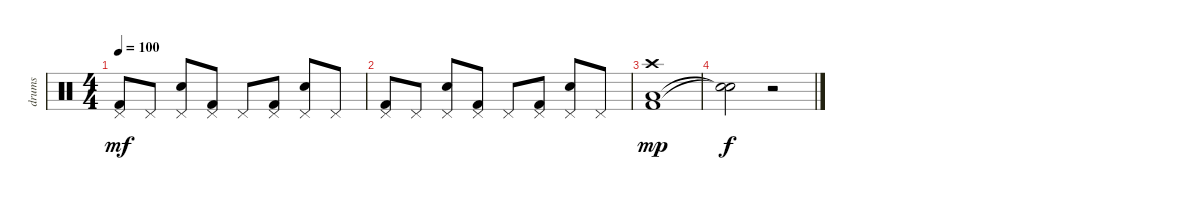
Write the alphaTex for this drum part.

\track ("drums" "drums") {instrument percussion}
\staff {score}
\articulation defaults
\ts (4 4)
\tempo 100
\clef neutral
\ks c
("Kick (hit) 2" "Pedal Hi-Hat (hit)").8{dy mf} "Pedal Hi-Hat (hit)".8 ("Snare (hit) 2" "Pedal Hi-Hat (hit)").8 ("Kick (hit) 2" "Pedal Hi-Hat (hit)").8 "Pedal Hi-Hat (hit)".8 ("Kick (hit) 2" "Pedal Hi-Hat (hit)").8 ("Snare (hit) 2" "Pedal Hi-Hat (hit)").8 "Pedal Hi-Hat (hit)".8 |
("Kick (hit) 2" "Pedal Hi-Hat (hit)").8 "Pedal Hi-Hat (hit)".8 ("Snare (hit) 2" "Pedal Hi-Hat (hit)").8 ("Kick (hit) 2" "Pedal Hi-Hat (hit)").8 "Pedal Hi-Hat (hit)".8 ("Kick (hit) 2" "Pedal Hi-Hat (hit)").8 ("Snare (hit) 2" "Pedal Hi-Hat (hit)").8 "Pedal Hi-Hat (hit)".8 |
("Kick (hit) 2" "Low Tom (hit)" "Crash high (hit)").1{dy mp} |
("Snare (hit)"{t} "Snare (hit)"{t}).2{dy f} r.2
